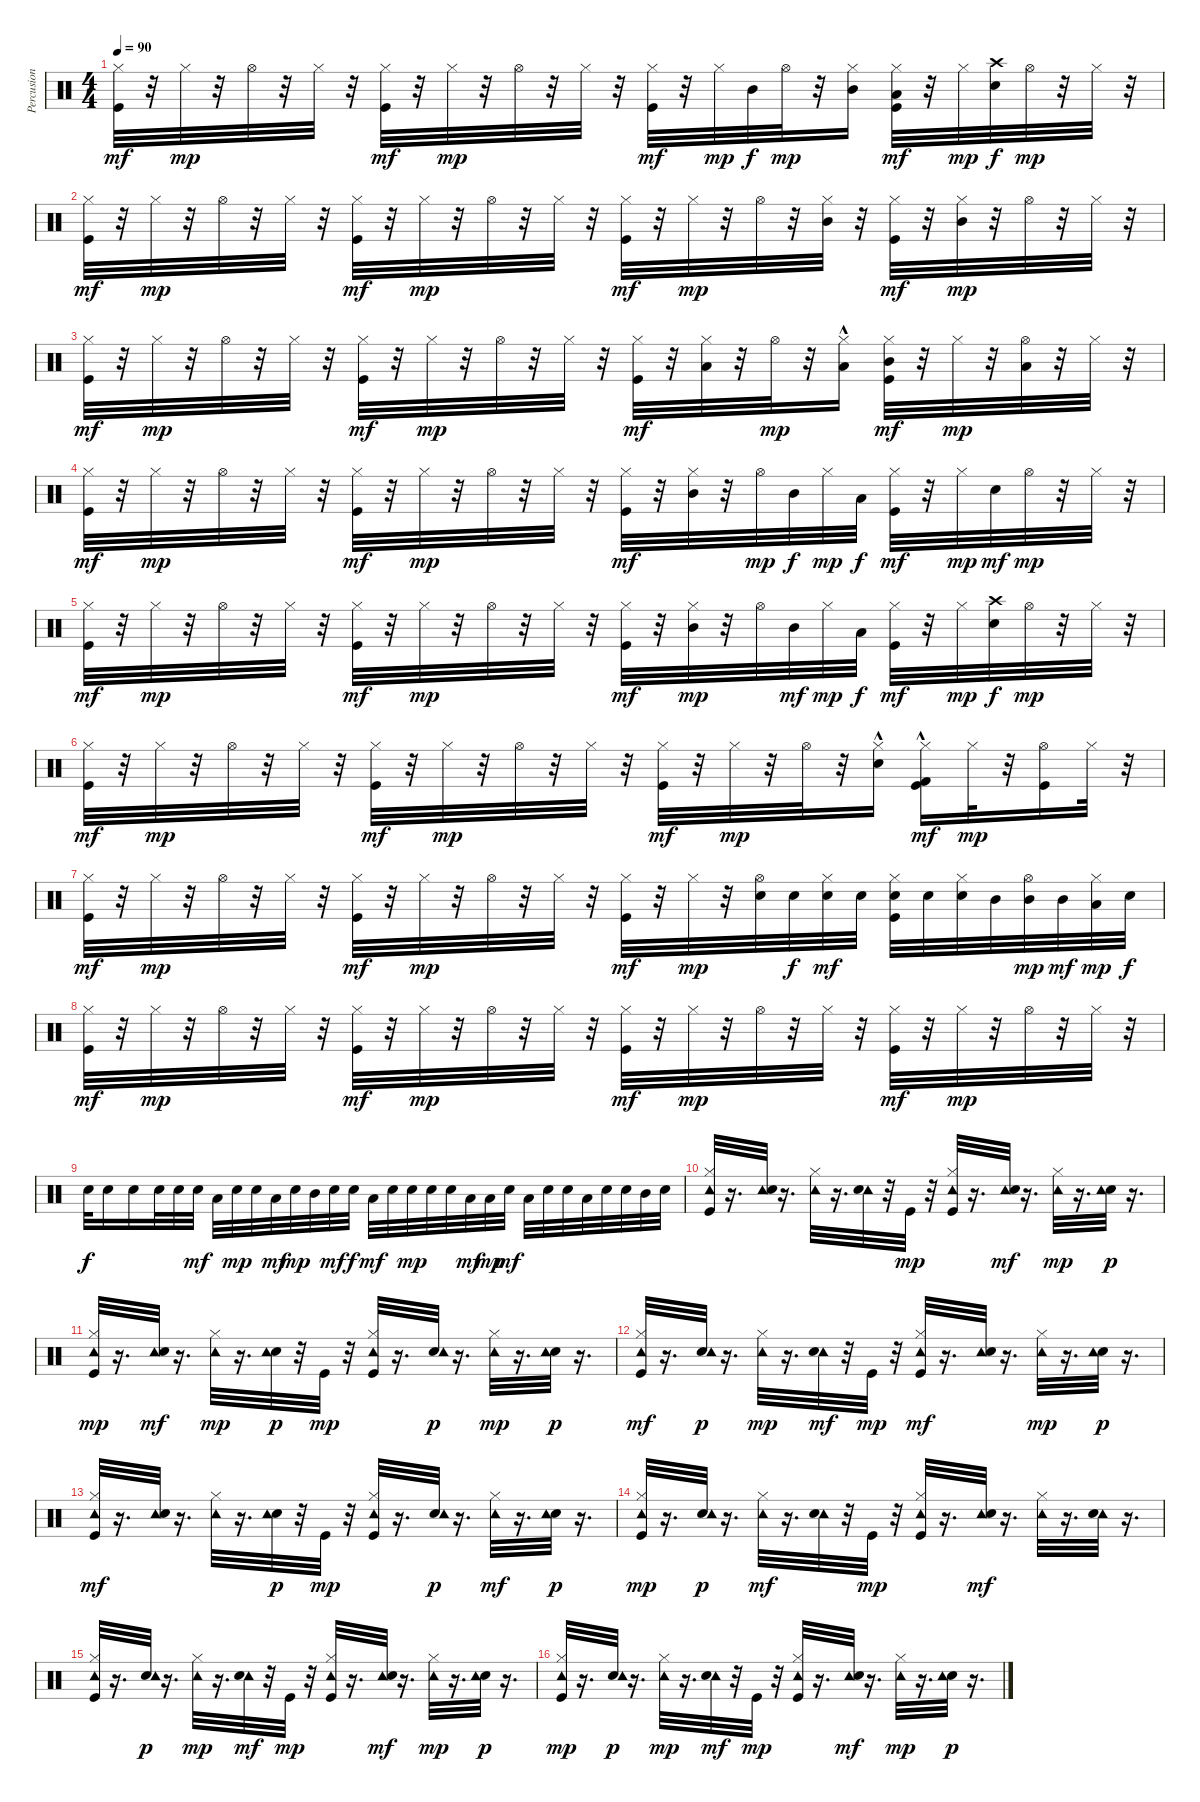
\track ("Percusion" "Percusion") {instrument percussion}
\staff {score}
\articulation defaults
\ts (4 4)
\tempo 90
\clef neutral
\ks c
("Kick (hit)" "Hi-Hat (closed)").32{dy mf} r.32 "Hi-Hat (closed)".32{dy mp} r.32 "Hi-Hat (open)".32 r.32 "Hi-Hat (closed)".32 r.32 ("Hi-Hat (closed)" "Kick (hit)").32{dy mf} r.32 "Hi-Hat (closed)".32{dy mp} r.32 "Hi-Hat (open)".32 r.32 "Hi-Hat (closed)".32 r.32 ("Hi-Hat (closed)" "Kick (hit)").32{dy mf} r.32 "Hi-Hat (closed)".32{dy mp} "Mid Tom (hit)".32{dy f} "Hi-Hat (open)".32{dy mp} r.32 ("Mid Tom (hit)" "Hi-Hat (closed)").16 ("Low Tom (hit)" "Kick (hit)" "Hi-Hat (closed)").32{dy mf} r.32 "Hi-Hat (closed)".32{dy mp} ("Crash high (hit)" "Electric Snare (hit)").32{dy f} "Hi-Hat (open)".32{dy mp} r.32 "Hi-Hat (closed)".32 r.32 |
("Kick (hit)" "Hi-Hat (closed)").32{dy mf} r.32 "Hi-Hat (closed)".32{dy mp} r.32 "Hi-Hat (open)".32 r.32 "Hi-Hat (closed)".32 r.32 ("Kick (hit)" "Hi-Hat (closed)").32{dy mf} r.32 "Hi-Hat (closed)".32{dy mp} r.32 "Hi-Hat (open)".32 r.32 "Hi-Hat (closed)".32 r.32 ("Kick (hit)" "Hi-Hat (closed)").32{dy mf} r.32 "Hi-Hat (closed)".32{dy mp} r.32 "Hi-Hat (open)".32 r.32 ("Mid Tom (hit)" "Hi-Hat (closed)").32 r.32 ("Hi-Hat (closed)" "Kick (hit)").32{dy mf} r.32 ("Mid Tom (hit)" "Hi-Hat (closed)").32{dy mp} r.32 "Hi-Hat (open)".32 r.32 "Hi-Hat (closed)".32 r.32 |
("Hi-Hat (closed)" "Kick (hit)").32{dy mf} r.32 "Hi-Hat (closed)".32{dy mp} r.32 "Hi-Hat (open)".32 r.32 "Hi-Hat (closed)".32 r.32 ("Kick (hit)" "Hi-Hat (closed)").32{dy mf} r.32 "Hi-Hat (closed)".32{dy mp} r.32 "Hi-Hat (open)".32 r.32 "Hi-Hat (closed)".32 r.32 ("Hi-Hat (closed)" "Kick (hit)").32{dy mf} r.32 ("Hi-Hat (closed)" "Low Tom (hit)").32 r.32 "Hi-Hat (open)".32{dy mp} r.32 ("Low Tom (hit)"{hac} "Hi-Hat (closed)").16 ("Mid Tom (hit)" "Hi-Hat (closed)" "Kick (hit)").32{dy mf} r.32 "Hi-Hat (closed)".32{dy mp} r.32 ("Low Tom (hit)" "Hi-Hat (open)").32 r.32 "Hi-Hat (closed)".32 r.32 |
("Hi-Hat (closed)" "Kick (hit)").32{dy mf} r.32 "Hi-Hat (closed)".32{dy mp} r.32 "Hi-Hat (open)".32 r.32 "Hi-Hat (closed)".32 r.32 ("Hi-Hat (closed)" "Kick (hit)").32{dy mf} r.32 "Hi-Hat (closed)".32{dy mp} r.32 "Hi-Hat (open)".32 r.32 "Hi-Hat (closed)".32 r.32 ("Kick (hit)" "Hi-Hat (closed)").32{dy mf} r.32 ("Hi-Hat (closed)" "Mid Tom (hit)").32 r.32 "Hi-Hat (open)".32{dy mp} "Mid Tom (hit)".32{dy f} "Hi-Hat (closed)".32{dy mp} "Low Tom (hit)".32{dy f} ("Kick (hit)" "Hi-Hat (closed)").32{dy mf} r.32 "Hi-Hat (closed)".32{dy mp} "Electric Snare (hit)".32{dy mf} "Hi-Hat (open)".32{dy mp} r.32 "Hi-Hat (closed)".32 r.32 |
("Kick (hit)" "Hi-Hat (closed)").32{dy mf} r.32 "Hi-Hat (closed)".32{dy mp} r.32 "Hi-Hat (open)".32 r.32 "Hi-Hat (closed)".32 r.32 ("Kick (hit)" "Hi-Hat (closed)").32{dy mf} r.32 "Hi-Hat (closed)".32{dy mp} r.32 "Hi-Hat (open)".32 r.32 "Hi-Hat (closed)".32 r.32 ("Hi-Hat (closed)" "Kick (hit)").32{dy mf} r.32 ("Mid Tom (hit)" "Hi-Hat (closed)").32{dy mp} r.32 "Hi-Hat (open)".32 "Mid Tom (hit)".32{dy mf} "Hi-Hat (closed)".32{dy mp} "Low Tom (hit)".32{dy f} ("Kick (hit)" "Hi-Hat (closed)").32{dy mf} r.32 "Hi-Hat (closed)".32{dy mp} ("Crash high (hit)" "Electric Snare (hit)").32{dy f} "Hi-Hat (open)".32{dy mp} r.32 "Hi-Hat (closed)".32 r.32 |
("Hi-Hat (closed)" "Kick (hit)").32{dy mf} r.32 "Hi-Hat (closed)".32{dy mp} r.32 "Hi-Hat (open)".32 r.32 "Hi-Hat (closed)".32 r.32 ("Hi-Hat (closed)" "Kick (hit)").32{dy mf} r.32 "Hi-Hat (closed)".32{dy mp} r.32 "Hi-Hat (open)".32 r.32 "Hi-Hat (closed)".32 r.32 ("Kick (hit)" "Hi-Hat (closed)").32{dy mf} r.32 "Hi-Hat (closed)".32{dy mp} r.32 "Hi-Hat (open)".32 r.32 ("Electric Snare (hit)"{hac} "Hi-Hat (closed)").16 ("Kick (hit) 2"{hac} "Kick (hit)" "Hi-Hat (closed)").16{dy mf} "Hi-Hat (closed)".32{dy mp} r.32 ("Hi-Hat (open)" "Kick (hit)").16 "Hi-Hat (closed)".32 r.32 |
("Hi-Hat (closed)" "Kick (hit)").32{dy mf} r.32 "Hi-Hat (closed)".32{dy mp} r.32 "Hi-Hat (open)".32 r.32 "Hi-Hat (closed)".32 r.32 ("Hi-Hat (closed)" "Kick (hit)").32{dy mf} r.32 "Hi-Hat (closed)".32{dy mp} r.32 "Hi-Hat (open)".32 r.32 "Hi-Hat (closed)".32 r.32 ("Kick (hit)" "Hi-Hat (closed)").32{dy mf} r.32 "Hi-Hat (closed)".32{dy mp} r.32 ("Hi-Hat (open)" "Electric Snare (hit)").32 "Electric Snare (hit)".32{dy f} ("Hi-Hat (closed)" "Electric Snare (hit)").32{dy mf} "Electric Snare (hit)".32 ("Kick (hit)" "Electric Snare (hit)" "Hi-Hat (closed)").32 "Electric Snare (hit)".32 ("Hi-Hat (closed)" "Electric Snare (hit)").32 "Mid Tom (hit)".32 ("Mid Tom (hit)" "Hi-Hat (open)").32{dy mp} "Mid Tom (hit)".32{dy mf} ("Low Tom (hit)" "Hi-Hat (closed)").32{dy mp} "Electric Snare (hit)".32{dy f} |
("Kick (hit)" "Hi-Hat (closed)").32{dy mf} r.32 "Hi-Hat (closed)".32{dy mp} r.32 "Hi-Hat (open)".32 r.32 "Hi-Hat (closed)".32 r.32 ("Hi-Hat (closed)" "Kick (hit)").32{dy mf} r.32 "Hi-Hat (closed)".32{dy mp} r.32 "Hi-Hat (open)".32 r.32 "Hi-Hat (closed)".32 r.32 ("Kick (hit)" "Hi-Hat (closed)").32{dy mf} r.32 "Hi-Hat (closed)".32{dy mp} r.32 "Hi-Hat (open)".32 r.32 "Hi-Hat (closed)".32 r.32 ("Kick (hit)" "Hi-Hat (closed)").32{dy mf} r.32 "Hi-Hat (closed)".32{dy mp} r.32 "Hi-Hat (open)".32 r.32 "Hi-Hat (closed)".32 r.32 |
"Electric Snare (hit)".32{dy f} "Electric Snare (hit)".16 "Electric Snare (hit)".16 "Electric Snare (hit)".32 "Electric Snare (hit)".32 "Electric Snare (hit)".32{dy mf} "Low Tom (hit)".32 "Electric Snare (hit)".32{dy mp} "Electric Snare (hit)".32 "Low Tom (hit)".32{dy mf} "Electric Snare (hit)".32{dy mp} "Mid Tom (hit)".32 "Electric Snare (hit)".32{dy mf} "Electric Snare (hit)".32{dy f} "Low Tom (hit)".32{dy mf} "Electric Snare (hit)".32 "Electric Snare (hit)".32{dy mp} "Electric Snare (hit)".32 "Electric Snare (hit)".32 "Low Tom (hit)".32{dy mf} "Low Tom (hit)".32{dy mp} "Electric Snare (hit)".32{dy mf} "Low Tom (hit)".32 "Electric Snare (hit)".32 "Electric Snare (hit)".32 "Low Tom (hit)".32 "Electric Snare (hit)".32 "Electric Snare (hit)".32 "Mid Tom (hit)".32 "Electric Snare (hit)".32 |
("Tambourine (hit)" "Kick (hit)" "Hi-Hat (closed)").32 r.16{d} ("Tambourine (hit)" "Snare (hit) 2").32 r.16{d} ("Tambourine (hit)" "Hi-Hat (closed)").32 r.16{d} ("Tambourine (hit)" "Snare (hit) 2").32 r.32 "Kick (hit)".32{dy mp} r.32 ("Tambourine (hit)" "Hi-Hat (closed)" "Kick (hit)").32 r.16{d} ("Tambourine (hit)" "Snare (hit) 2").32{dy mf} r.16{d} ("Hi-Hat (closed)" "Tambourine (hit)").32{dy mp} r.16{d} ("Snare (hit) 2" "Tambourine (hit)").32{dy p} r.16{d} |
("Tambourine (hit)" "Hi-Hat (closed)" "Kick (hit)").32{dy mp} r.16{d} ("Tambourine (hit)" "Snare (hit) 2").32{dy mf} r.16{d} ("Hi-Hat (closed)" "Tambourine (hit)").32{dy mp} r.16{d} ("Snare (hit) 2" "Tambourine (hit)").32{dy p} r.32 "Kick (hit)".32{dy mp} r.32 ("Kick (hit)" "Hi-Hat (closed)" "Tambourine (hit)").32 r.16{d} ("Snare (hit) 2" "Tambourine (hit)").32{dy p} r.16{d} ("Hi-Hat (closed)" "Tambourine (hit)").32{dy mp} r.16{d} ("Snare (hit) 2" "Tambourine (hit)").32{dy p} r.16{d} |
("Tambourine (hit)" "Kick (hit)" "Hi-Hat (closed)").32{dy mf} r.16{d} ("Snare (hit) 2" "Tambourine (hit)").32{dy p} r.16{d} ("Hi-Hat (closed)" "Tambourine (hit)").32{dy mp} r.16{d} ("Tambourine (hit)" "Snare (hit) 2").32{dy mf} r.32 "Kick (hit)".32{dy mp} r.32 ("Tambourine (hit)" "Kick (hit)" "Hi-Hat (closed)").32{dy mf} r.16{d} ("Tambourine (hit)" "Snare (hit) 2").32 r.16{d} ("Hi-Hat (closed)" "Tambourine (hit)").32{dy mp} r.16{d} ("Snare (hit) 2" "Tambourine (hit)").32{dy p} r.16{d} |
("Kick (hit)" "Tambourine (hit)" "Hi-Hat (closed)").32{dy mf} r.16{d} ("Tambourine (hit)" "Snare (hit) 2").32 r.16{d} ("Tambourine (hit)" "Hi-Hat (closed)").32 r.16{d} ("Snare (hit) 2" "Tambourine (hit)").32{dy p} r.32 "Kick (hit)".32{dy mp} r.32 ("Kick (hit)" "Hi-Hat (closed)" "Tambourine (hit)").32 r.16{d} ("Snare (hit) 2" "Tambourine (hit)").32{dy p} r.16{d} ("Tambourine (hit)" "Hi-Hat (closed)").32{dy mf} r.16{d} ("Snare (hit) 2" "Tambourine (hit)").32{dy p} r.16{d} |
("Tambourine (hit)" "Hi-Hat (closed)" "Kick (hit)").32{dy mp} r.16{d} ("Snare (hit) 2" "Tambourine (hit)").32{dy p} r.16{d} ("Tambourine (hit)" "Hi-Hat (closed)").32{dy mf} r.16{d} ("Tambourine (hit)" "Snare (hit) 2").32 r.32 "Kick (hit)".32{dy mp} r.32 ("Hi-Hat (closed)" "Kick (hit)" "Tambourine (hit)").32 r.16{d} ("Tambourine (hit)" "Snare (hit) 2").32{dy mf} r.16{d} ("Tambourine (hit)" "Hi-Hat (closed)").32 r.16{d} ("Tambourine (hit)" "Snare (hit) 2").32 r.16{d} |
("Tambourine (hit)" "Kick (hit)" "Hi-Hat (closed)").32 r.16{d} ("Snare (hit) 2" "Tambourine (hit)").32{dy p} r.16{d} ("Hi-Hat (closed)" "Tambourine (hit)").32{dy mp} r.16{d} ("Tambourine (hit)" "Snare (hit) 2").32{dy mf} r.32 "Kick (hit)".32{dy mp} r.32 ("Tambourine (hit)" "Hi-Hat (closed)" "Kick (hit)").32 r.16{d} ("Tambourine (hit)" "Snare (hit) 2").32{dy mf} r.16{d} ("Hi-Hat (closed)" "Tambourine (hit)").32{dy mp} r.16{d} ("Snare (hit) 2" "Tambourine (hit)").32{dy p} r.16{d} |
("Hi-Hat (closed)" "Tambourine (hit)" "Kick (hit)").32{dy mp} r.16{d} ("Snare (hit) 2" "Tambourine (hit)").32{dy p} r.16{d} ("Hi-Hat (closed)" "Tambourine (hit)").32{dy mp} r.16{d} ("Tambourine (hit)" "Snare (hit) 2").32{dy mf} r.32 "Kick (hit)".32{dy mp} r.32 ("Hi-Hat (closed)" "Tambourine (hit)" "Kick (hit)").32 r.16{d} ("Tambourine (hit)" "Snare (hit) 2").32{dy mf} r.16{d} ("Hi-Hat (closed)" "Tambourine (hit)").32{dy mp} r.16{d} ("Snare (hit) 2" "Tambourine (hit)").32{dy p} r.16{d}
